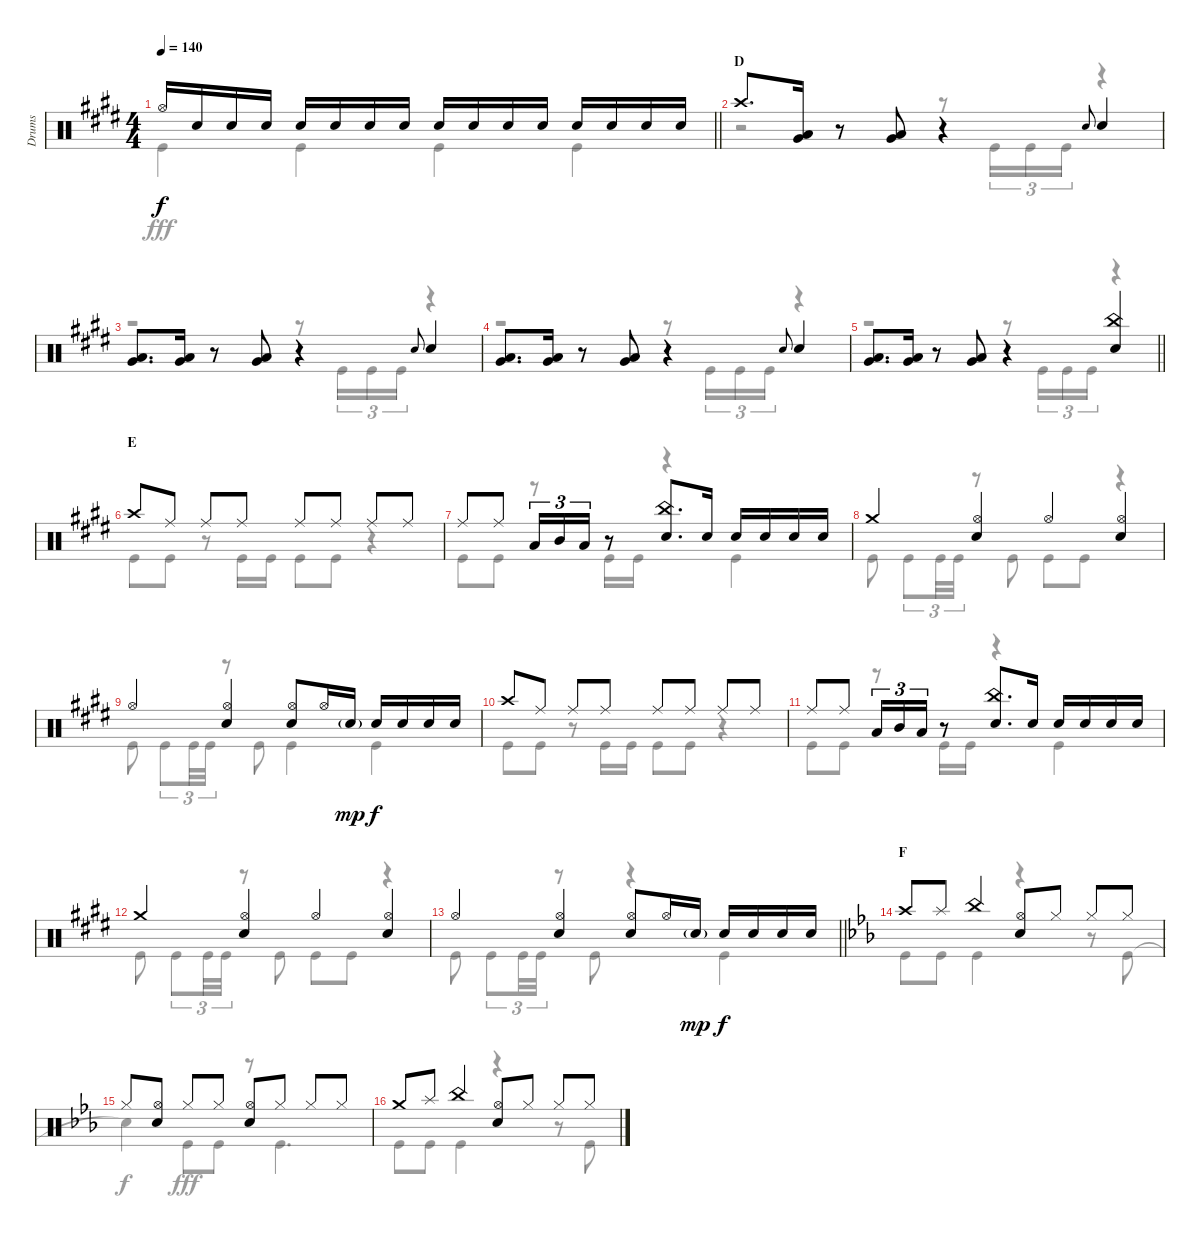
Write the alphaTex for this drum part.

\track ("Drums" "Drums") {instrument percussion}
\staff {score}
\articulation defaults
\voice
\ts (4 4)
\tempo 140
\clef neutral
\barLineRight lightlight
\ks e "Hi-Hat (open)".16{dy f} "Snare (hit) 2".16 "Snare (hit) 2".16 "Snare (hit) 2".16 "Snare (hit) 2".16 "Snare (hit) 2".16 "Snare (hit) 2".16 "Snare (hit) 2".16 "Snare (hit) 2".16 "Snare (hit) 2".16 "Snare (hit) 2".16 "Snare (hit) 2".16 "Snare (hit) 2".16 "Snare (hit) 2".16 "Snare (hit) 2".16 "Snare (hit) 2".16
|
\section ("" "D")
"Crash high (hit)".8{d} ("Low Tom (hit)" "Very Low Tom (hit)").16 r.8 ("Low Tom (hit)" "Very Low Tom (hit)").8 r.4 "Snare (hit) 2".8{gr onbeat} "Snare (hit) 2".4 |
("Low Tom (hit)" "Very Low Tom (hit)").8{d} ("Low Tom (hit)" "Very Low Tom (hit)").16 r.8 ("Low Tom (hit)" "Very Low Tom (hit)").8 r.4 "Snare (hit) 2".8{gr onbeat} "Snare (hit) 2".4 |
("Low Tom (hit)" "Very Low Tom (hit)").8{d} ("Low Tom (hit)" "Very Low Tom (hit)").16 r.8 ("Low Tom (hit)" "Very Low Tom (hit)").8 r.4 "Snare (hit) 2".8{gr onbeat} "Snare (hit) 2".4 |
\barLineRight lightlight
("Low Tom (hit)" "Very Low Tom (hit)").8{d} ("Low Tom (hit)" "Very Low Tom (hit)").16 r.8 ("Low Tom (hit)" "Very Low Tom (hit)").8 r.4 ("China (hit)" "Snare (hit) 2").4 |
\section ("" "E")
"Crash high (hit)".8 "Ride (middle)".8 "Ride (middle)".8 "Ride (middle)".8 "Ride (middle)".8 "Ride (middle)".8 "Ride (middle)".8 "Ride (middle)".8 |
"Ride (middle)".8 "Ride (middle)".8 "Low Tom (hit)".16{tu (3 2)} "Mid Tom (hit)".16{tu (3 2)} "Low Tom (hit)".16{tu (3 2)} r.8 ("China (hit)" "Snare (hit) 2").8{d} "Snare (hit) 2".16 "Snare (hit) 2".16 "Snare (hit) 2".16 "Snare (hit) 2".16 "Snare (hit) 2".16 |
"Crash medium (hit)".4 ("Hi-Hat (open)" "Snare (hit) 2").4 "Hi-Hat (open)".4 ("Hi-Hat (open)" "Snare (hit) 2").4 |
"Hi-Hat (open)".4 ("Hi-Hat (open)" "Snare (hit) 2").4 ("Hi-Hat (open)" "Snare (hit) 2").8 "Hi-Hat (open)".16 "Snare (hit) 2"{g}.16{dy mp} "Snare (hit) 2".16{dy f} "Snare (hit) 2".16 "Snare (hit) 2".16 "Snare (hit) 2".16 |
"Crash high (hit)".8 "Ride (middle)".8 "Ride (middle)".8 "Ride (middle)".8 "Ride (middle)".8 "Ride (middle)".8 "Ride (middle)".8 "Ride (middle)".8 |
"Ride (middle)".8 "Ride (middle)".8 "Low Tom (hit)".16{tu (3 2)} "Mid Tom (hit)".16{tu (3 2)} "Low Tom (hit)".16{tu (3 2)} r.8 ("China (hit)" "Snare (hit) 2").8{d} "Snare (hit) 2".16 "Snare (hit) 2".16 "Snare (hit) 2".16 "Snare (hit) 2".16 "Snare (hit) 2".16 |
"Crash medium (hit)".4 ("Hi-Hat (open)" "Snare (hit) 2").4 "Hi-Hat (open)".4 ("Hi-Hat (open)" "Snare (hit) 2").4 |
\barLineRight lightlight "Hi-Hat (open)".4
("Hi-Hat (open)" "Snare (hit) 2").4 ("Hi-Hat (open)" "Snare (hit) 2").8 "Hi-Hat (open)".16 "Snare (hit) 2"{g}.16{dy mp} "Snare (hit) 2".16{dy f} "Snare (hit) 2".16 "Snare (hit) 2".16 "Snare (hit) 2".16 |
\section ("" "F")
\ks eb "Crash high (hit)".8 "Splash (hit)".8 "China (hit)".4
("Hi-Hat (open)" "Snare (hit) 2").8 "Hi-Hat (closed)".8 "Hi-Hat (closed)".8 "Hi-Hat (closed)".8 |
"Hi-Hat (closed)".8 ("Hi-Hat (open)" "Snare (hit) 2").8 "Hi-Hat (closed)".8 "Hi-Hat (closed)".8 ("Hi-Hat (open)" "Snare (hit) 2").8 "Hi-Hat (closed)".8 "Hi-Hat (closed)".8 "Hi-Hat (closed)".8 |
"Crash medium (hit)".8 "Splash (hit)".8 "China (hit)".4 ("Hi-Hat (open)" "Snare (hit) 2").8 "Hi-Hat (closed)".8 "Hi-Hat (closed)".8 "Hi-Hat (closed)".8
\voice
\clef neutral
\ottava regular
\simile none
\barLineRight lightlight
\ks e "Kick (hit)".4{dy fff} "Kick (hit)".4 "Kick (hit)".4 "Kick (hit)".4
|
r.2 r.8 "Kick (hit)".16{tu (3 2)} "Kick (hit)".16{tu (3 2)} "Kick (hit)".16{tu (3 2)} r.4 |
r.2 r.8 "Kick (hit)".16{tu (3 2)} "Kick (hit)".16{tu (3 2)} "Kick (hit)".16{tu (3 2)} r.4 |
r.2 r.8 "Kick (hit)".16{tu (3 2)} "Kick (hit)".16{tu (3 2)} "Kick (hit)".16{tu (3 2)} r.4 |
\barLineRight lightlight
r.2 r.8 "Kick (hit)".16{tu (3 2)} "Kick (hit)".16{tu (3 2)} "Kick (hit)".16{tu (3 2)} r.4 |
"Kick (hit)".8 "Kick (hit)".8 r.8 "Kick (hit)".16 "Kick (hit)".16 "Kick (hit)".8 "Kick (hit)".8 r.4 |
"Kick (hit)".8 "Kick (hit)".8 r.8 "Kick (hit)".16 "Kick (hit)".16 r.4 "Kick (hit)".4 |
"Kick (hit)".8 "Kick (hit)".8{tu (3 2)} "Kick (hit)".32{tu (3 2)} "Kick (hit)".32{tu (3 2)} r.8 "Kick (hit)".8 "Kick (hit)".8 "Kick (hit)".8 r.4 |
"Kick (hit)".8 "Kick (hit)".8{tu (3 2)} "Kick (hit)".32{tu (3 2)} "Kick (hit)".32{tu (3 2)} r.8 "Kick (hit)".8 "Kick (hit)".4 "Kick (hit)".4 |
"Kick (hit)".8 "Kick (hit)".8 r.8 "Kick (hit)".16 "Kick (hit)".16 "Kick (hit)".8 "Kick (hit)".8 r.4 |
"Kick (hit)".8 "Kick (hit)".8 r.8 "Kick (hit)".16 "Kick (hit)".16 r.4 "Kick (hit)".4 |
"Kick (hit)".8 "Kick (hit)".8{tu (3 2)} "Kick (hit)".32{tu (3 2)} "Kick (hit)".32{tu (3 2)} r.8 "Kick (hit)".8 "Kick (hit)".8 "Kick (hit)".8 r.4 |
\barLineRight lightlight "Kick (hit)".8 "Kick (hit)".8{tu (3 2)} "Kick (hit)".32{tu (3 2)} "Kick (hit)".32{tu (3 2)}
r.8 "Kick (hit)".8 r.4 "Kick (hit)".4 |
\ks eb "Kick (hit)".8 "Kick (hit)".8 "Kick (hit)".4
r.4 r.8 "Kick (hit)".8 |
"Snare (hit)"{t}.4{dy f} "Kick (hit)".8{dy fff} "Kick (hit)".8 r.8 "Kick (hit)".4{d} |
"Kick (hit)".8 "Kick (hit)".8 "Kick (hit)".4 r.4 r.8 "Kick (hit)".8
